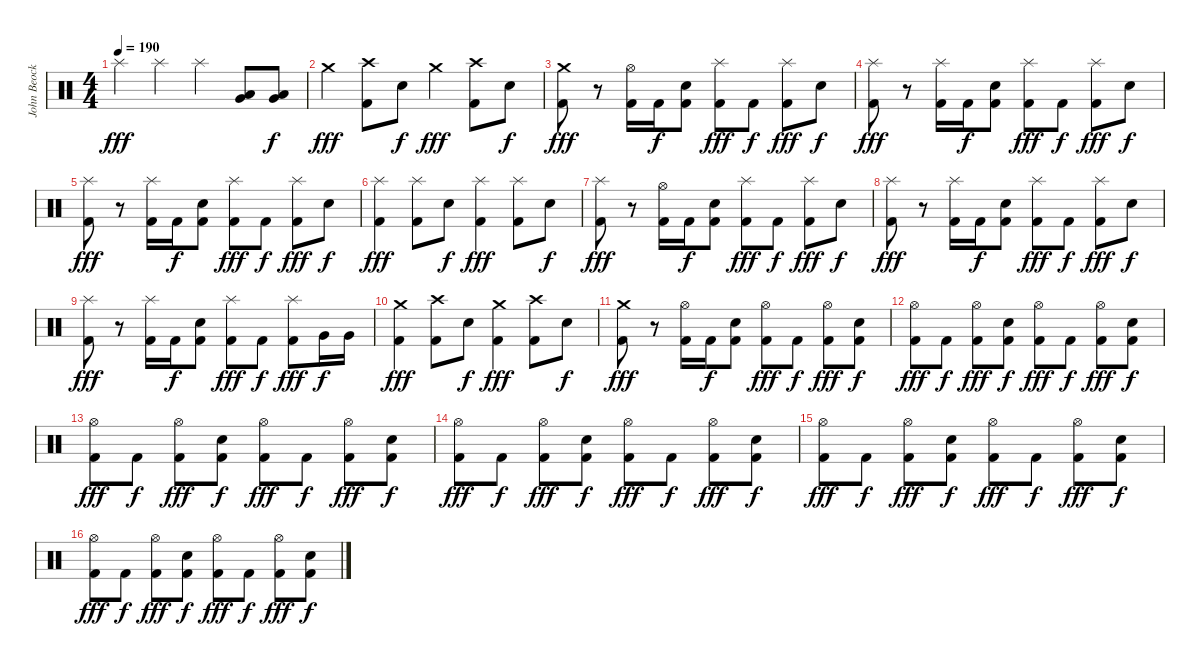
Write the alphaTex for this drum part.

\track ("John Beocklin (Drums)" "John Beock") {instrument percussion}
\staff {score}
\articulation defaults
\ts (4 4)
\tempo 190
\clef neutral
\ks c "Splash (hit)".4{dy fff} "Splash (hit)".4 "Splash (hit)".4
("Very Low Tom (hit)" "Low Floor Tom (hit)").8 ("Very Low Tom (hit)" "Low Floor Tom (hit)").8{dy f} |
"Crash medium (hit)".4{dy fff} ("Crash high (hit)" "Kick (hit) 2").8 "Snare (hit) 2".8{dy f} "Crash medium (hit)".4{dy fff} ("Crash high (hit)" "Kick (hit) 2").8 "Snare (hit) 2".8{dy f} |
("Crash medium (hit)" "Kick (hit) 2").8{dy fff} r.8 ("Hi-Hat (open)" "Kick (hit) 2").16 "Kick (hit) 2".16{dy f} ("Snare (hit) 2" "Kick (hit) 2").8 ("Splash (hit)" "Kick (hit) 2").8{dy fff} "Kick (hit) 2".8{dy f} ("Splash (hit)" "Kick (hit) 2").8{dy fff} "Snare (hit) 2".8{dy f} |
("Splash (hit)" "Kick (hit) 2").8{dy fff} r.8 ("Splash (hit)" "Kick (hit) 2").16 "Kick (hit) 2".16{dy f} ("Snare (hit) 2" "Kick (hit) 2").8 ("Splash (hit)" "Kick (hit) 2").8{dy fff} "Kick (hit) 2".8{dy f} ("Splash (hit)" "Kick (hit) 2").8{dy fff} "Snare (hit) 2".8{dy f} |
("Splash (hit)" "Kick (hit) 2").8{dy fff} r.8 ("Splash (hit)" "Kick (hit) 2").16 "Kick (hit) 2".16{dy f} ("Snare (hit) 2" "Kick (hit) 2").8 ("Splash (hit)" "Kick (hit) 2").8{dy fff} "Kick (hit) 2".8{dy f} ("Splash (hit)" "Kick (hit) 2").8{dy fff} "Snare (hit) 2".8{dy f} |
("Splash (hit)" "Kick (hit) 2").4{dy fff} ("Splash (hit)" "Kick (hit) 2").8 "Snare (hit) 2".8{dy f} ("Splash (hit)" "Kick (hit) 2").4{dy fff} ("Splash (hit)" "Kick (hit) 2").8 "Snare (hit) 2".8{dy f} |
("Splash (hit)" "Kick (hit) 2").8{dy fff} r.8 ("Hi-Hat (open)" "Kick (hit) 2").16 "Kick (hit) 2".16{dy f} ("Snare (hit) 2" "Kick (hit) 2").8 ("Splash (hit)" "Kick (hit) 2").8{dy fff} "Kick (hit) 2".8{dy f} ("Splash (hit)" "Kick (hit) 2").8{dy fff} "Snare (hit) 2".8{dy f} |
("Splash (hit)" "Kick (hit) 2").8{dy fff} r.8 ("Splash (hit)" "Kick (hit) 2").16 "Kick (hit) 2".16{dy f} ("Snare (hit) 2" "Kick (hit) 2").8 ("Splash (hit)" "Kick (hit) 2").8{dy fff} "Kick (hit) 2".8{dy f} ("Splash (hit)" "Kick (hit) 2").8{dy fff} "Snare (hit) 2".8{dy f} |
("Splash (hit)" "Kick (hit) 2").8{dy fff} r.8 ("Splash (hit)" "Kick (hit) 2").16 "Kick (hit) 2".16{dy f} ("Snare (hit) 2" "Kick (hit) 2").8 ("Splash (hit)" "Kick (hit) 2").8{dy fff} "Kick (hit) 2".8{dy f} ("Splash (hit)" "Kick (hit) 2").8{dy fff} "Very Low Tom (hit)".16{dy f} "Very Low Tom (hit)".16 |
("Crash medium (hit)" "Kick (hit) 2").4{dy fff} ("Crash high (hit)" "Kick (hit) 2").8 "Snare (hit) 2".8{dy f} ("Crash medium (hit)" "Kick (hit) 2").4{dy fff} ("Crash high (hit)" "Kick (hit) 2").8 "Snare (hit) 2".8{dy f} |
("Crash medium (hit)" "Kick (hit) 2").8{dy fff} r.8 ("Hi-Hat (open)" "Kick (hit) 2").16 "Kick (hit) 2".16{dy f} ("Snare (hit) 2" "Kick (hit) 2").8 ("Hi-Hat (open)" "Kick (hit) 2").8{dy fff} "Kick (hit) 2".8{dy f} ("Hi-Hat (open)" "Kick (hit) 2").8{dy fff} ("Snare (hit) 2" "Kick (hit) 2").8{dy f} |
("Hi-Hat (open)" "Kick (hit) 2").8{dy fff} "Kick (hit) 2".8{dy f} ("Hi-Hat (open)" "Kick (hit) 2").8{dy fff} ("Snare (hit) 2" "Kick (hit) 2").8{dy f} ("Hi-Hat (open)" "Kick (hit) 2").8{dy fff} "Kick (hit) 2".8{dy f} ("Hi-Hat (open)" "Kick (hit) 2").8{dy fff} ("Snare (hit) 2" "Kick (hit) 2").8{dy f} |
("Hi-Hat (open)" "Kick (hit) 2").8{dy fff} "Kick (hit) 2".8{dy f} ("Hi-Hat (open)" "Kick (hit) 2").8{dy fff} ("Snare (hit) 2" "Kick (hit) 2").8{dy f} ("Hi-Hat (open)" "Kick (hit) 2").8{dy fff} "Kick (hit) 2".8{dy f} ("Hi-Hat (open)" "Kick (hit) 2").8{dy fff} ("Snare (hit) 2" "Kick (hit) 2").8{dy f} |
("Hi-Hat (open)" "Kick (hit) 2").8{dy fff} "Kick (hit) 2".8{dy f} ("Hi-Hat (open)" "Kick (hit) 2").8{dy fff} ("Snare (hit) 2" "Kick (hit) 2").8{dy f} ("Hi-Hat (open)" "Kick (hit) 2").8{dy fff} "Kick (hit) 2".8{dy f} ("Hi-Hat (open)" "Kick (hit) 2").8{dy fff} ("Snare (hit) 2" "Kick (hit) 2").8{dy f} |
("Hi-Hat (open)" "Kick (hit) 2").8{dy fff} "Kick (hit) 2".8{dy f} ("Hi-Hat (open)" "Kick (hit) 2").8{dy fff} ("Snare (hit) 2" "Kick (hit) 2").8{dy f} ("Hi-Hat (open)" "Kick (hit) 2").8{dy fff} "Kick (hit) 2".8{dy f} ("Hi-Hat (open)" "Kick (hit) 2").8{dy fff} ("Snare (hit) 2" "Kick (hit) 2").8{dy f} |
("Hi-Hat (open)" "Kick (hit) 2").8{dy fff} "Kick (hit) 2".8{dy f} ("Hi-Hat (open)" "Kick (hit) 2").8{dy fff} ("Snare (hit) 2" "Kick (hit) 2").8{dy f} ("Hi-Hat (open)" "Kick (hit) 2").8{dy fff} "Kick (hit) 2".8{dy f} ("Hi-Hat (open)" "Kick (hit) 2").8{dy fff} ("Snare (hit) 2" "Kick (hit) 2").8{dy f}
